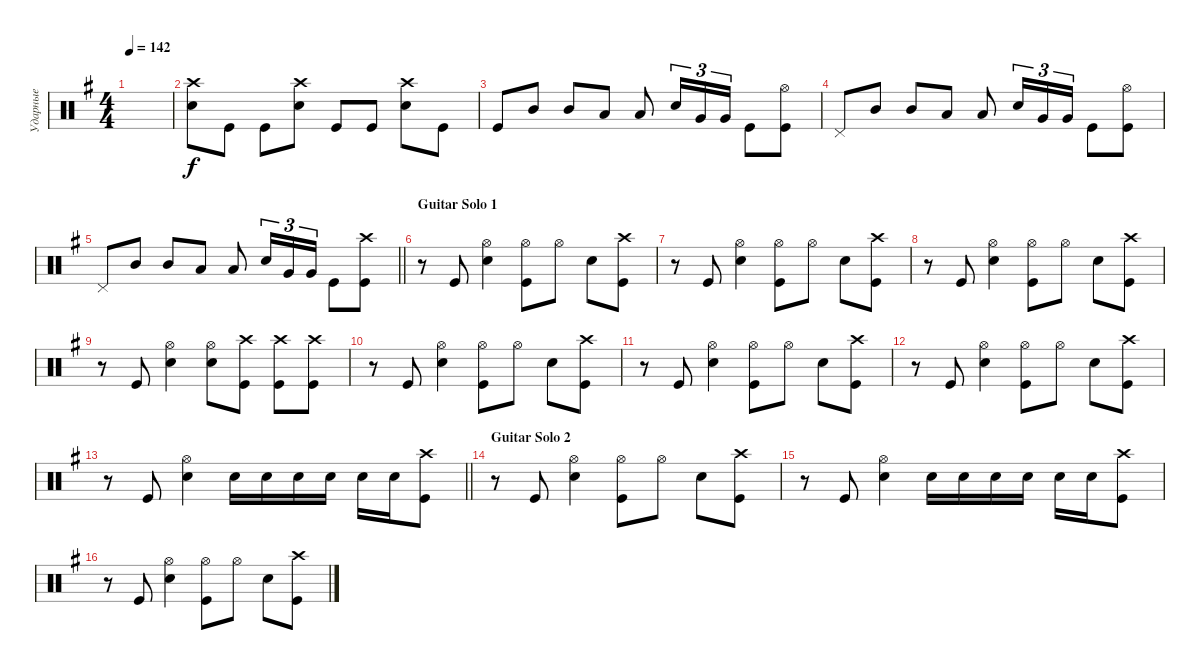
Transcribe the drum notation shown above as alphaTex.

\track ("Ударные" "Ударные") {instrument percussion}
\staff {score}
\articulation defaults
\ts (4 4)
\tempo 142
\clef neutral
\ks eminor
|
("Snare (hit) 2" "Crash high (hit)").8 "Kick (hit)".8 "Kick (hit)".8 ("Snare (hit) 2" "Crash high (hit)").8 "Kick (hit)".8 "Kick (hit)".8 ("Snare (hit) 2" "Crash high (hit)").8 "Kick (hit)".8 |
"Kick (hit)".8 "Mid Tom (hit)".8 "Mid Tom (hit)".8 "Low Tom (hit)".8 "Low Tom (hit)".8 "Snare (hit) 2".16{tu (3 2)} "Very Low Tom (hit)".16{tu (3 2)} "Very Low Tom (hit)".16{tu (3 2)} "Kick (hit)".8 ("Kick (hit)" "Hi-Hat (open)").8 |
"Pedal Hi-Hat (hit)".8 "Mid Tom (hit)".8 "Mid Tom (hit)".8 "Low Tom (hit)".8 "Low Tom (hit)".8 "Snare (hit) 2".16{tu (3 2)} "Very Low Tom (hit)".16{tu (3 2)} "Very Low Tom (hit)".16{tu (3 2)} "Kick (hit)".8 ("Kick (hit)" "Hi-Hat (open)").8 |
\barLineRight lightlight "Pedal Hi-Hat (hit)".8 "Mid Tom (hit)".8 "Mid Tom (hit)".8 "Low Tom (hit)".8 "Low Tom (hit)".8 "Snare (hit) 2".16{tu (3 2)} "Very Low Tom (hit)".16{tu (3 2)} "Very Low Tom (hit)".16{tu (3 2)} "Kick (hit)".8
("Kick (hit)" "Crash high (hit)").8 |
\section ("" "Guitar Solo 1")
r.8 "Kick (hit)".8 ("Snare (hit) 2" "Hi-Hat (open)").4 ("Kick (hit)" "Hi-Hat (open)").8 "Hi-Hat (open)".8 "Snare (hit) 2".8 ("Kick (hit)" "Crash high (hit)").8 |
r.8 "Kick (hit)".8 ("Snare (hit) 2" "Hi-Hat (open)").4 ("Kick (hit)" "Hi-Hat (open)").8 "Hi-Hat (open)".8 "Snare (hit) 2".8 ("Kick (hit)" "Crash high (hit)").8 |
r.8 "Kick (hit)".8 ("Snare (hit) 2" "Hi-Hat (open)").4 ("Kick (hit)" "Hi-Hat (open)").8 "Hi-Hat (open)".8 "Snare (hit) 2".8 ("Kick (hit)" "Crash high (hit)").8 |
r.8 "Kick (hit)".8 ("Snare (hit) 2" "Hi-Hat (open)").4 ("Snare (hit) 2" "Hi-Hat (open)").8 ("Crash high (hit)" "Kick (hit)").8 ("Crash high (hit)" "Kick (hit)").8 ("Kick (hit)" "Crash high (hit)").8 |
r.8 "Kick (hit)".8 ("Snare (hit) 2" "Hi-Hat (open)").4 ("Kick (hit)" "Hi-Hat (open)").8 "Hi-Hat (open)".8 "Snare (hit) 2".8 ("Kick (hit)" "Crash high (hit)").8 |
r.8 "Kick (hit)".8 ("Snare (hit) 2" "Hi-Hat (open)").4 ("Kick (hit)" "Hi-Hat (open)").8 "Hi-Hat (open)".8 "Snare (hit) 2".8 ("Kick (hit)" "Crash high (hit)").8 |
r.8 "Kick (hit)".8 ("Snare (hit) 2" "Hi-Hat (open)").4 ("Kick (hit)" "Hi-Hat (open)").8 "Hi-Hat (open)".8 "Snare (hit) 2".8 ("Kick (hit)" "Crash high (hit)").8 |
\barLineRight lightlight
r.8 "Kick (hit)".8 ("Snare (hit) 2" "Hi-Hat (open)").4 "Snare (hit) 2".16 "Snare (hit) 2".16 "Snare (hit) 2".16 "Snare (hit) 2".16 "Snare (hit) 2".16 "Snare (hit) 2".16 ("Kick (hit)" "Crash high (hit)").8 |
\section ("" "Guitar Solo 2")
r.8 "Kick (hit)".8 ("Snare (hit) 2" "Hi-Hat (open)").4 ("Kick (hit)" "Hi-Hat (open)").8 "Hi-Hat (open)".8 "Snare (hit) 2".8 ("Kick (hit)" "Crash high (hit)").8 |
r.8 "Kick (hit)".8 ("Snare (hit) 2" "Hi-Hat (open)").4 "Snare (hit) 2".16 "Snare (hit) 2".16 "Snare (hit) 2".16 "Snare (hit) 2".16 "Snare (hit) 2".16 "Snare (hit) 2".16 ("Kick (hit)" "Crash high (hit)").8 |
r.8 "Kick (hit)".8 ("Snare (hit) 2" "Hi-Hat (open)").4 ("Kick (hit)" "Hi-Hat (open)").8 "Hi-Hat (open)".8 "Snare (hit) 2".8 ("Kick (hit)" "Crash high (hit)").8
